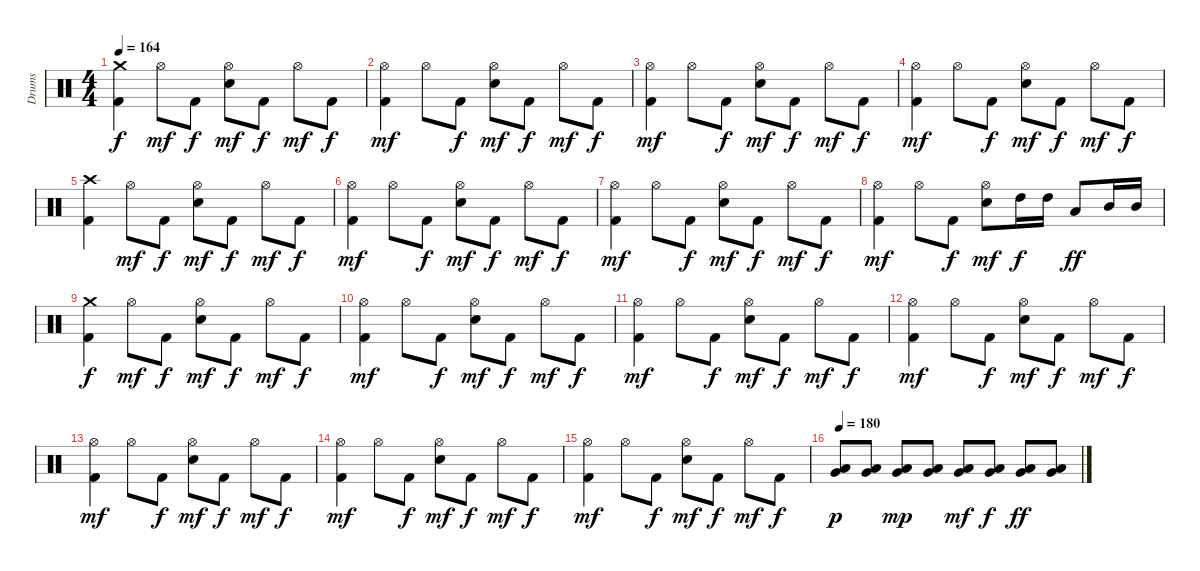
\track ("Drums" "Drums") {instrument percussion}
\staff {score}
\articulation defaults
\ts (4 4)
\tempo 164
\clef neutral
\ks c
("Crash medium (hit)" "Kick (hit) 2").4{dy f} "Hi-Hat (open)".8{dy mf} "Kick (hit) 2".8{dy f} ("Hi-Hat (open)" "Electric Snare (hit)").8{dy mf} "Kick (hit) 2".8{dy f} "Hi-Hat (open)".8{dy mf} "Kick (hit) 2".8{dy f} |
("Hi-Hat (open)" "Kick (hit) 2").4{dy mf} "Hi-Hat (open)".8 "Kick (hit) 2".8{dy f} ("Hi-Hat (open)" "Electric Snare (hit)").8{dy mf} "Kick (hit) 2".8{dy f} "Hi-Hat (open)".8{dy mf} "Kick (hit) 2".8{dy f} |
("Hi-Hat (open)" "Kick (hit) 2").4{dy mf} "Hi-Hat (open)".8 "Kick (hit) 2".8{dy f} ("Hi-Hat (open)" "Electric Snare (hit)").8{dy mf} "Kick (hit) 2".8{dy f} "Hi-Hat (open)".8{dy mf} "Kick (hit) 2".8{dy f} |
("Hi-Hat (open)" "Kick (hit) 2").4{dy mf} "Hi-Hat (open)".8 "Kick (hit) 2".8{dy f} ("Hi-Hat (open)" "Electric Snare (hit)").8{dy mf} "Kick (hit) 2".8{dy f} "Hi-Hat (open)".8{dy mf} "Kick (hit) 2".8{dy f} |
("Crash high (hit)" "Kick (hit) 2").4 "Hi-Hat (open)".8{dy mf} "Kick (hit) 2".8{dy f} ("Hi-Hat (open)" "Electric Snare (hit)").8{dy mf} "Kick (hit) 2".8{dy f} "Hi-Hat (open)".8{dy mf} "Kick (hit) 2".8{dy f} |
("Hi-Hat (open)" "Kick (hit) 2").4{dy mf} "Hi-Hat (open)".8 "Kick (hit) 2".8{dy f} ("Hi-Hat (open)" "Electric Snare (hit)").8{dy mf} "Kick (hit) 2".8{dy f} "Hi-Hat (open)".8{dy mf} "Kick (hit) 2".8{dy f} |
("Hi-Hat (open)" "Kick (hit) 2").4{dy mf} "Hi-Hat (open)".8 "Kick (hit) 2".8{dy f} ("Hi-Hat (open)" "Electric Snare (hit)").8{dy mf} "Kick (hit) 2".8{dy f} "Hi-Hat (open)".8{dy mf} "Kick (hit) 2".8{dy f} |
("Hi-Hat (open)" "Kick (hit) 2").4{dy mf} "Hi-Hat (open)".8 "Kick (hit) 2".8{dy f} ("Hi-Hat (open)" "Electric Snare (hit)").8{dy mf} "High Tom (hit)".16{dy f} "High Tom (hit)".16 "Low Tom (hit)".8{dy ff} "Mid Tom (hit)".16 "Mid Tom (hit)".16 |
("Crash medium (hit)" "Kick (hit) 2").4{dy f} "Hi-Hat (open)".8{dy mf} "Kick (hit) 2".8{dy f} ("Hi-Hat (open)" "Electric Snare (hit)").8{dy mf} "Kick (hit) 2".8{dy f} "Hi-Hat (open)".8{dy mf} "Kick (hit) 2".8{dy f} |
("Hi-Hat (open)" "Kick (hit) 2").4{dy mf} "Hi-Hat (open)".8 "Kick (hit) 2".8{dy f} ("Hi-Hat (open)" "Electric Snare (hit)").8{dy mf} "Kick (hit) 2".8{dy f} "Hi-Hat (open)".8{dy mf} "Kick (hit) 2".8{dy f} |
("Hi-Hat (open)" "Kick (hit) 2").4{dy mf} "Hi-Hat (open)".8 "Kick (hit) 2".8{dy f} ("Hi-Hat (open)" "Electric Snare (hit)").8{dy mf} "Kick (hit) 2".8{dy f} "Hi-Hat (open)".8{dy mf} "Kick (hit) 2".8{dy f} |
("Hi-Hat (open)" "Kick (hit) 2").4{dy mf} "Hi-Hat (open)".8 "Kick (hit) 2".8{dy f} ("Hi-Hat (open)" "Electric Snare (hit)").8{dy mf} "Kick (hit) 2".8{dy f} "Hi-Hat (open)".8{dy mf} "Kick (hit) 2".8{dy f} |
("Hi-Hat (open)" "Kick (hit) 2").4{dy mf} "Hi-Hat (open)".8 "Kick (hit) 2".8{dy f} ("Hi-Hat (open)" "Electric Snare (hit)").8{dy mf} "Kick (hit) 2".8{dy f} "Hi-Hat (open)".8{dy mf} "Kick (hit) 2".8{dy f} |
("Hi-Hat (open)" "Kick (hit) 2").4{dy mf} "Hi-Hat (open)".8 "Kick (hit) 2".8{dy f} ("Hi-Hat (open)" "Electric Snare (hit)").8{dy mf} "Kick (hit) 2".8{dy f} "Hi-Hat (open)".8{dy mf} "Kick (hit) 2".8{dy f} |
("Hi-Hat (open)" "Kick (hit) 2").4{dy mf} "Hi-Hat (open)".8 "Kick (hit) 2".8{dy f} ("Hi-Hat (open)" "Electric Snare (hit)").8{dy mf} "Kick (hit) 2".8{dy f} "Hi-Hat (open)".8{dy mf} "Kick (hit) 2".8{dy f} |
\tempo 180
("Low Tom (hit)" "Very Low Tom (hit)").8{dy p} ("Low Tom (hit)" "Very Low Tom (hit)").8 ("Low Tom (hit)" "Very Low Tom (hit)").8{dy mp} ("Low Tom (hit)" "Very Low Tom (hit)").8 ("Low Tom (hit)" "Very Low Tom (hit)").8{dy mf} ("Low Tom (hit)" "Very Low Tom (hit)").8{dy f} ("Low Tom (hit)" "Very Low Tom (hit)").8{dy ff} ("Low Tom (hit)" "Very Low Tom (hit)").8
